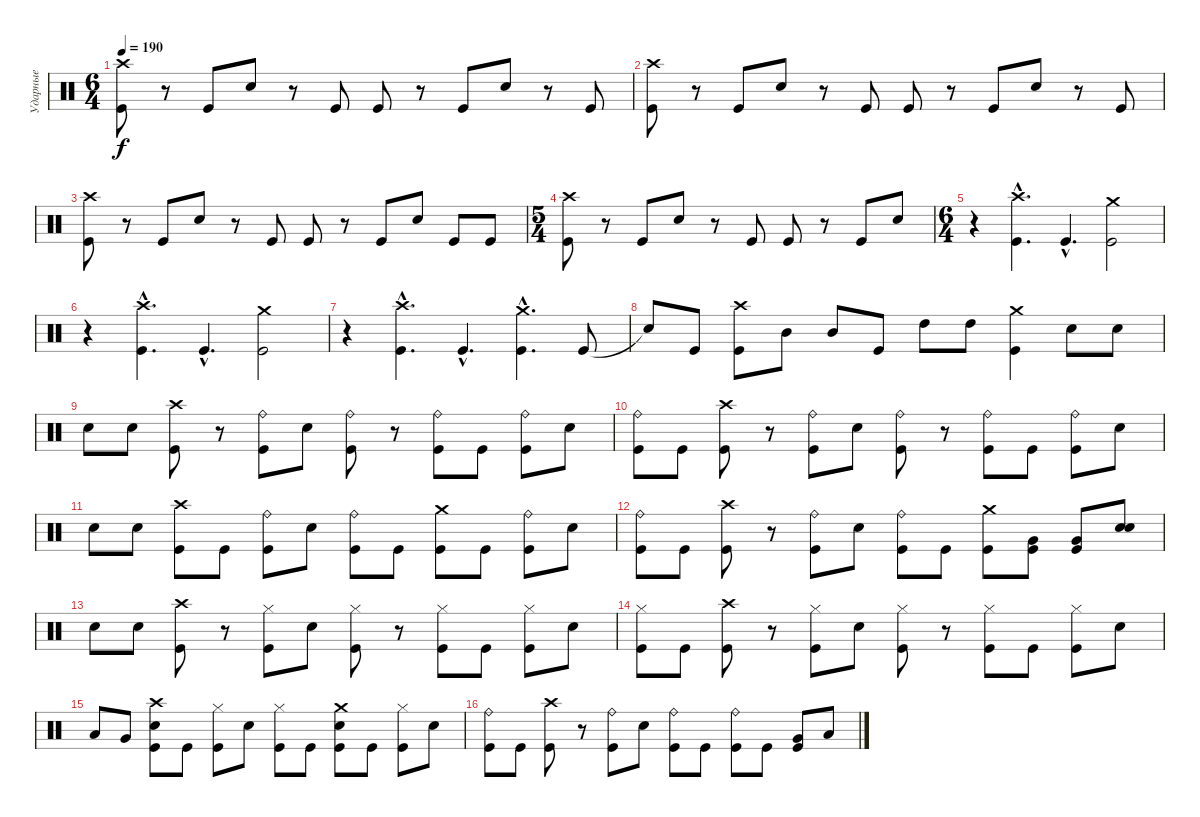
\track ("Ударные" "Ударные") {instrument percussion}
\staff {score}
\articulation defaults
\ts (6 4)
\tempo 190
\clef neutral
\ks c
("Crash high (hit)" "Kick (hit)").8{dy f} r.8 "Kick (hit)".8 "Electric Snare (hit)".8 r.8 "Kick (hit)".8 "Kick (hit)".8 r.8 "Kick (hit)".8 "Electric Snare (hit)".8 r.8 "Kick (hit)".8 |
("Crash high (hit)" "Kick (hit)").8 r.8 "Kick (hit)".8 "Electric Snare (hit)".8 r.8 "Kick (hit)".8 "Kick (hit)".8 r.8 "Kick (hit)".8 "Electric Snare (hit)".8 r.8 "Kick (hit)".8 |
("Crash high (hit)" "Kick (hit)").8 r.8 "Kick (hit)".8 "Electric Snare (hit)".8 r.8 "Kick (hit)".8 "Kick (hit)".8 r.8 "Kick (hit)".8 "Electric Snare (hit)".8 "Kick (hit)".8 "Kick (hit)".8 |
\ts (5 4)
("Crash high (hit)" "Kick (hit)").8 r.8 "Kick (hit)".8 "Electric Snare (hit)".8 r.8 "Kick (hit)".8 "Kick (hit)".8 r.8 "Kick (hit)".8 "Electric Snare (hit)".8 |
\ts (6 4)
r.4 ("Crash high (hit)"{hac} "Kick (hit)"{hac}).4{d} "Kick (hit)"{hac}.4{d} ("Crash medium (hit)" "Kick (hit)").2 |
r.4 ("Crash high (hit)"{hac} "Kick (hit)"{hac}).4{d} "Kick (hit)"{hac}.4{d} ("Crash medium (hit)" "Kick (hit)").2 |
r.4 ("Crash high (hit)"{hac} "Kick (hit)"{hac}).4{d} "Kick (hit)"{hac}.4{d} ("Crash medium (hit)"{hac} "Kick (hit)"{hac}).4{d} "Kick (hit)".8 |
"Snare (hit)"{t}.8 "Kick (hit)".8 ("Crash high (hit)" "Kick (hit)").8 "Mid Tom (hit)".8 "Mid Tom (hit)".8 "Kick (hit)".8 "High Tom (hit)".8 "High Tom (hit)".8 ("Crash medium (hit)" "Kick (hit)").4 "Electric Snare (hit)".8 "Electric Snare (hit)".8 |
"Electric Snare (hit)".8 "Electric Snare (hit)".8 ("Crash high (hit)" "Kick (hit)").8 r.8 ("Ride (bell)" "Kick (hit)").8 "Electric Snare (hit)".8 ("Ride (bell)" "Kick (hit)").8 r.8 ("Ride (bell)" "Kick (hit)").8 "Kick (hit)".8 ("Ride (bell)" "Kick (hit)").8 "Electric Snare (hit)".8 |
("Ride (bell)" "Kick (hit)").8 "Kick (hit)".8 ("Crash high (hit)" "Kick (hit)").8 r.8 ("Ride (bell)" "Kick (hit)").8 "Electric Snare (hit)".8 ("Ride (bell)" "Kick (hit)").8 r.8 ("Ride (bell)" "Kick (hit)").8 "Kick (hit)".8 ("Ride (bell)" "Kick (hit)").8 "Electric Snare (hit)".8 |
"Electric Snare (hit)".8 "Electric Snare (hit)".8 ("Crash high (hit)" "Kick (hit)").8 "Kick (hit)".8 ("Ride (bell)" "Kick (hit)").8 "Electric Snare (hit)".8 ("Ride (bell)" "Kick (hit)").8 "Kick (hit)".8 ("Crash medium (hit)" "Kick (hit)").8 "Kick (hit)".8 ("Ride (bell)" "Kick (hit)").8 "Electric Snare (hit)".8 |
("Ride (bell)" "Kick (hit)").8 "Kick (hit)".8 ("Crash high (hit)" "Kick (hit)").8 r.8 ("Ride (bell)" "Kick (hit)").8 "Electric Snare (hit)".8 ("Ride (bell)" "Kick (hit)").8 "Kick (hit)".8 ("Crash medium (hit)" "Kick (hit)").8 ("Very Low Tom (hit)" "Kick (hit)").8 ("Very Low Tom (hit)" "Kick (hit)").8 ("Electric Snare (hit)" "Electric Snare (hit)").8 |
"Electric Snare (hit)".8 "Electric Snare (hit)".8 ("Crash high (hit)" "Kick (hit)").8 r.8 ("Hi-Hat (closed)" "Kick (hit)").8 "Electric Snare (hit)".8 ("Hi-Hat (closed)" "Kick (hit)").8 r.8 ("Hi-Hat (closed)" "Kick (hit)").8 "Kick (hit)".8 ("Hi-Hat (closed)" "Kick (hit)").8 "Electric Snare (hit)".8 |
("Hi-Hat (closed)" "Kick (hit)").8 "Kick (hit)".8 ("Crash high (hit)" "Kick (hit)").8 r.8 ("Hi-Hat (closed)" "Kick (hit)").8 "Electric Snare (hit)".8 ("Hi-Hat (closed)" "Kick (hit)").8 r.8 ("Hi-Hat (closed)" "Kick (hit)").8 "Kick (hit)".8 ("Hi-Hat (closed)" "Kick (hit)").8 "Electric Snare (hit)".8 |
"Low Tom (hit)".8 "Very Low Tom (hit)".8 ("Crash high (hit)" "Electric Snare (hit)" "Kick (hit)").8 "Kick (hit)".8 ("Hi-Hat (closed)" "Kick (hit)").8 "Electric Snare (hit)".8 ("Hi-Hat (closed)" "Kick (hit)").8 "Kick (hit)".8 ("Crash medium (hit)" "Electric Snare (hit)" "Kick (hit)").8 "Kick (hit)".8 ("Hi-Hat (closed)" "Kick (hit)").8 "Electric Snare (hit)".8 |
("Ride (bell)" "Kick (hit)").8 "Kick (hit)".8 ("Crash high (hit)" "Kick (hit)").8 r.8 ("Ride (bell)" "Kick (hit)").8 "Electric Snare (hit)".8 ("Ride (bell)" "Kick (hit)").8 "Kick (hit)".8 ("Ride (bell)" "Kick (hit)").8 "Kick (hit)".8 ("Very Low Tom (hit)" "Kick (hit)").8 "Low Tom (hit)".8
